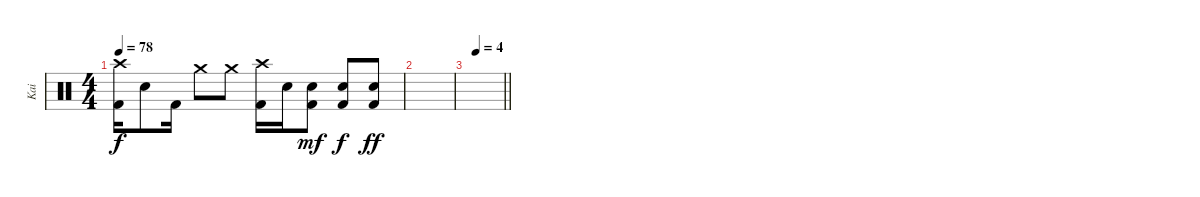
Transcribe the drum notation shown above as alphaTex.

\track ("Kai" "Kai") {instrument percussion}
\staff {score}
\articulation defaults
\ts (4 4)
\tempo 78
\clef neutral
\ks c
("Crash high (hit)" "Kick (hit) 2").16{dy f} "Electric Snare (hit)".8 "Kick (hit) 2".16 "Crash medium (hit)".8 "Crash medium (hit)".8 ("Crash high (hit)" "Kick (hit) 2").16 "Electric Snare (hit)".16 ("Electric Snare (hit)" "Kick (hit) 2").8{dy mf} ("Electric Snare (hit)" "Kick (hit) 2").8{dy f} ("Electric Snare (hit)" "Kick (hit) 2").8{dy ff} |
|
\tempo (4 0.25)
\barLineRight lightlight
